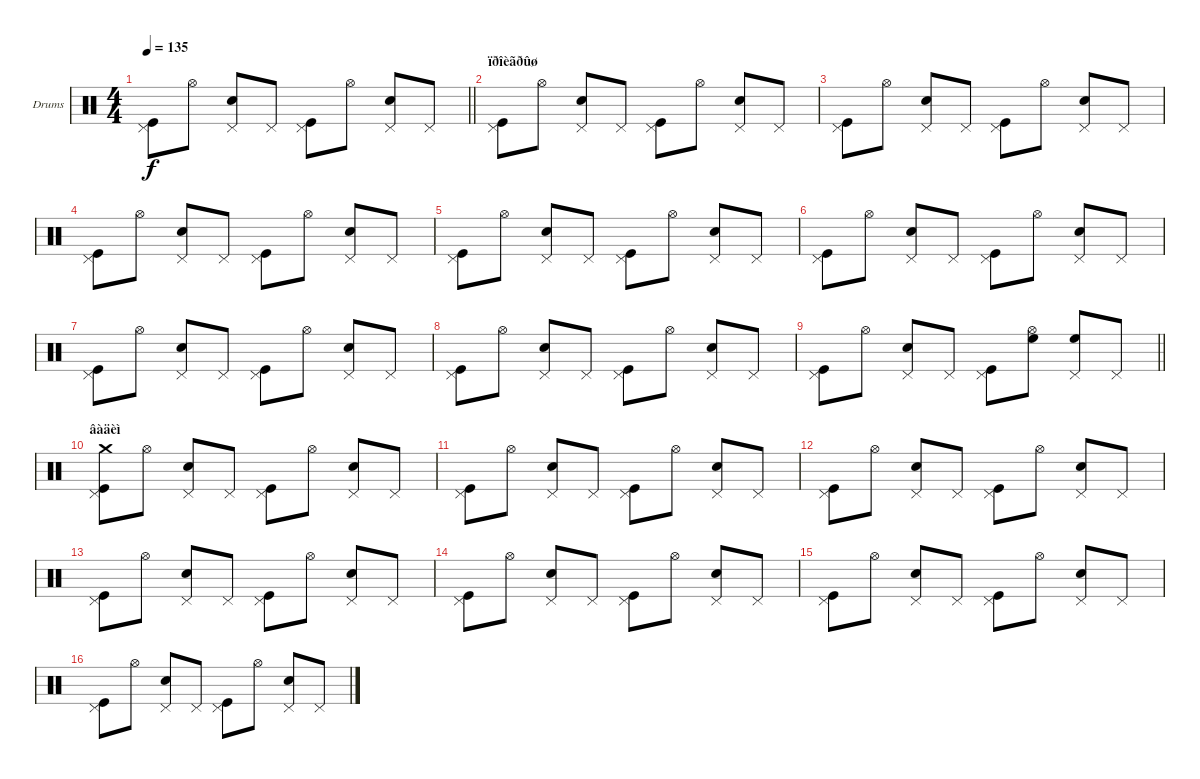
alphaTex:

\bracketExtendMode groupsimilarinstruments
\firstSystemTrackNameOrientation horizontal
\otherSystemsTrackNameOrientation horizontal
\track ("Drumkit" "Drums") {instrument percussion}
\staff {score}
\articulation defaults
\ts (4 4)
\tempo 135
\clef neutral
\barLineRight lightlight
\ks c
("Pedal Hi-Hat (hit)" "Kick (hit)").8{dy f} "Hi-Hat (open)".8 ("Pedal Hi-Hat (hit)" "Snare (hit) 2").8 "Pedal Hi-Hat (hit)".8 ("Pedal Hi-Hat (hit)" "Kick (hit)").8 "Hi-Hat (open)".8 ("Pedal Hi-Hat (hit)" "Snare (hit) 2").8 "Pedal Hi-Hat (hit)".8 |
\section ("" "ïðîèãðûø")
("Pedal Hi-Hat (hit)" "Kick (hit)").8 "Hi-Hat (open)".8 ("Pedal Hi-Hat (hit)" "Snare (hit) 2").8 "Pedal Hi-Hat (hit)".8 ("Pedal Hi-Hat (hit)" "Kick (hit)").8 "Hi-Hat (open)".8 ("Pedal Hi-Hat (hit)" "Snare (hit) 2").8 "Pedal Hi-Hat (hit)".8 |
("Pedal Hi-Hat (hit)" "Kick (hit)").8 "Hi-Hat (open)".8 ("Pedal Hi-Hat (hit)" "Snare (hit) 2").8 "Pedal Hi-Hat (hit)".8 ("Pedal Hi-Hat (hit)" "Kick (hit)").8 "Hi-Hat (open)".8 ("Pedal Hi-Hat (hit)" "Snare (hit) 2").8 "Pedal Hi-Hat (hit)".8 |
("Pedal Hi-Hat (hit)" "Kick (hit)").8 "Hi-Hat (open)".8 ("Pedal Hi-Hat (hit)" "Snare (hit) 2").8 "Pedal Hi-Hat (hit)".8 ("Pedal Hi-Hat (hit)" "Kick (hit)").8 "Hi-Hat (open)".8 ("Pedal Hi-Hat (hit)" "Snare (hit) 2").8 "Pedal Hi-Hat (hit)".8 |
("Pedal Hi-Hat (hit)" "Kick (hit)").8 "Hi-Hat (open)".8 ("Pedal Hi-Hat (hit)" "Snare (hit) 2").8 "Pedal Hi-Hat (hit)".8 ("Pedal Hi-Hat (hit)" "Kick (hit)").8 "Hi-Hat (open)".8 ("Pedal Hi-Hat (hit)" "Snare (hit) 2").8 "Pedal Hi-Hat (hit)".8 |
("Pedal Hi-Hat (hit)" "Kick (hit)").8 "Hi-Hat (open)".8 ("Pedal Hi-Hat (hit)" "Snare (hit) 2").8 "Pedal Hi-Hat (hit)".8 ("Pedal Hi-Hat (hit)" "Kick (hit)").8 "Hi-Hat (open)".8 ("Pedal Hi-Hat (hit)" "Snare (hit) 2").8 "Pedal Hi-Hat (hit)".8 |
("Pedal Hi-Hat (hit)" "Kick (hit)").8 "Hi-Hat (open)".8 ("Pedal Hi-Hat (hit)" "Snare (hit) 2").8 "Pedal Hi-Hat (hit)".8 ("Pedal Hi-Hat (hit)" "Kick (hit)").8 "Hi-Hat (open)".8 ("Pedal Hi-Hat (hit)" "Snare (hit) 2").8 "Pedal Hi-Hat (hit)".8 |
("Pedal Hi-Hat (hit)" "Kick (hit)").8 "Hi-Hat (open)".8 ("Pedal Hi-Hat (hit)" "Snare (hit) 2").8 "Pedal Hi-Hat (hit)".8 ("Pedal Hi-Hat (hit)" "Kick (hit)").8 "Hi-Hat (open)".8 ("Pedal Hi-Hat (hit)" "Snare (hit) 2").8 "Pedal Hi-Hat (hit)".8 |
\barLineRight lightlight
("Pedal Hi-Hat (hit)" "Kick (hit)").8 "Hi-Hat (open)".8 ("Pedal Hi-Hat (hit)" "Snare (hit) 2").8 "Pedal Hi-Hat (hit)".8 ("Pedal Hi-Hat (hit)" "Kick (hit)").8 ("Hi-Hat (open)" "High Floor Tom (hit)").8 ("Pedal Hi-Hat (hit)" "High Floor Tom (hit)").8 "Pedal Hi-Hat (hit)".8 |
\section ("" "âàäèì")
("Pedal Hi-Hat (hit)" "Kick (hit)" "Crash medium (hit)").8 "Hi-Hat (open)".8 ("Pedal Hi-Hat (hit)" "Snare (hit) 2").8 "Pedal Hi-Hat (hit)".8 ("Pedal Hi-Hat (hit)" "Kick (hit)").8 "Hi-Hat (open)".8 ("Pedal Hi-Hat (hit)" "Snare (hit) 2").8 "Pedal Hi-Hat (hit)".8 |
("Pedal Hi-Hat (hit)" "Kick (hit)").8 "Hi-Hat (open)".8 ("Pedal Hi-Hat (hit)" "Snare (hit) 2").8 "Pedal Hi-Hat (hit)".8 ("Pedal Hi-Hat (hit)" "Kick (hit)").8 "Hi-Hat (open)".8 ("Pedal Hi-Hat (hit)" "Snare (hit) 2").8 "Pedal Hi-Hat (hit)".8 |
("Pedal Hi-Hat (hit)" "Kick (hit)").8 "Hi-Hat (open)".8 ("Pedal Hi-Hat (hit)" "Snare (hit) 2").8 "Pedal Hi-Hat (hit)".8 ("Pedal Hi-Hat (hit)" "Kick (hit)").8 "Hi-Hat (open)".8 ("Pedal Hi-Hat (hit)" "Snare (hit) 2").8 "Pedal Hi-Hat (hit)".8 |
("Pedal Hi-Hat (hit)" "Kick (hit)").8 "Hi-Hat (open)".8 ("Pedal Hi-Hat (hit)" "Snare (hit) 2").8 "Pedal Hi-Hat (hit)".8 ("Pedal Hi-Hat (hit)" "Kick (hit)").8 "Hi-Hat (open)".8 ("Pedal Hi-Hat (hit)" "Snare (hit) 2").8 "Pedal Hi-Hat (hit)".8 |
("Pedal Hi-Hat (hit)" "Kick (hit)").8 "Hi-Hat (open)".8 ("Pedal Hi-Hat (hit)" "Snare (hit) 2").8 "Pedal Hi-Hat (hit)".8 ("Pedal Hi-Hat (hit)" "Kick (hit)").8 "Hi-Hat (open)".8 ("Pedal Hi-Hat (hit)" "Snare (hit) 2").8 "Pedal Hi-Hat (hit)".8 |
("Pedal Hi-Hat (hit)" "Kick (hit)").8 "Hi-Hat (open)".8 ("Pedal Hi-Hat (hit)" "Snare (hit) 2").8 "Pedal Hi-Hat (hit)".8 ("Pedal Hi-Hat (hit)" "Kick (hit)").8 "Hi-Hat (open)".8 ("Pedal Hi-Hat (hit)" "Snare (hit) 2").8 "Pedal Hi-Hat (hit)".8 |
("Pedal Hi-Hat (hit)" "Kick (hit)").8 "Hi-Hat (open)".8 ("Pedal Hi-Hat (hit)" "Snare (hit) 2").8 "Pedal Hi-Hat (hit)".8 ("Pedal Hi-Hat (hit)" "Kick (hit)").8 "Hi-Hat (open)".8 ("Pedal Hi-Hat (hit)" "Snare (hit) 2").8 "Pedal Hi-Hat (hit)".8
